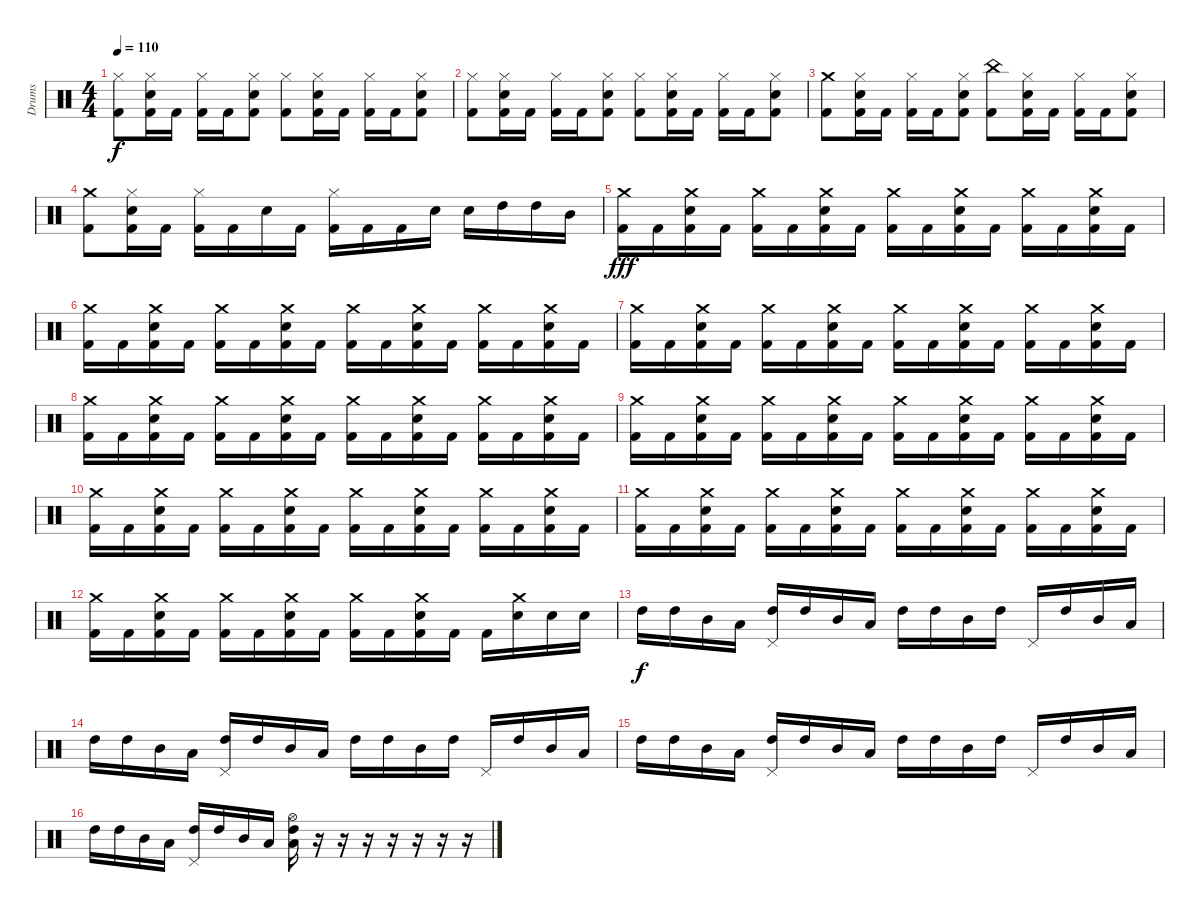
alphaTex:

\track ("Drums" "Drums") {instrument percussion}
\staff {score}
\articulation defaults
\ts (4 4)
\tempo 110
\clef neutral
\ks c
("Hi-Hat (closed)" "Kick (hit) 2").8{dy f} ("Hi-Hat (closed)" "Electric Snare (hit)" "Kick (hit) 2").16 "Kick (hit) 2".16 ("Hi-Hat (closed)" "Kick (hit) 2").16 "Kick (hit) 2".16 ("Hi-Hat (closed)" "Electric Snare (hit)" "Kick (hit) 2").8 ("Hi-Hat (closed)" "Kick (hit) 2").8 ("Hi-Hat (closed)" "Electric Snare (hit)" "Kick (hit) 2").16 "Kick (hit) 2".16 ("Hi-Hat (closed)" "Kick (hit) 2").16 "Kick (hit) 2".16 ("Hi-Hat (closed)" "Electric Snare (hit)" "Kick (hit) 2").8 |
("Hi-Hat (closed)" "Kick (hit) 2").8 ("Hi-Hat (closed)" "Electric Snare (hit)" "Kick (hit) 2").16 "Kick (hit) 2".16 ("Hi-Hat (closed)" "Kick (hit) 2").16 "Kick (hit) 2".16 ("Hi-Hat (closed)" "Electric Snare (hit)" "Kick (hit) 2").8 ("Hi-Hat (closed)" "Kick (hit) 2").8 ("Hi-Hat (closed)" "Electric Snare (hit)" "Kick (hit) 2").16 "Kick (hit) 2".16 ("Hi-Hat (closed)" "Kick (hit) 2").16 "Kick (hit) 2".16 ("Hi-Hat (closed)" "Electric Snare (hit)" "Kick (hit) 2").8 |
("Crash medium (hit)" "Kick (hit) 2").8 ("Hi-Hat (closed)" "Electric Snare (hit)" "Kick (hit) 2").16 "Kick (hit) 2".16 ("Hi-Hat (closed)" "Kick (hit) 2").16 "Kick (hit) 2".16 ("Hi-Hat (closed)" "Electric Snare (hit)" "Kick (hit) 2").8 ("China (hit)" "Kick (hit) 2").8 ("Hi-Hat (closed)" "Electric Snare (hit)" "Kick (hit) 2").16 "Kick (hit) 2".16 ("Hi-Hat (closed)" "Kick (hit) 2").16 "Kick (hit) 2".16 ("Hi-Hat (closed)" "Electric Snare (hit)" "Kick (hit) 2").8 |
("Crash medium (hit)" "Kick (hit) 2").8 ("Hi-Hat (closed)" "Electric Snare (hit)" "Kick (hit) 2").16 "Kick (hit) 2".16 ("Hi-Hat (closed)" "Kick (hit) 2").16 "Kick (hit) 2".16 "Electric Snare (hit)".16 "Kick (hit) 2".16 ("Hi-Hat (closed)" "Kick (hit) 2").16 "Kick (hit) 2".16 "Kick (hit) 2".16 "Electric Snare (hit)".16 "Electric Snare (hit)".16 "High Tom (hit)".16 "High Tom (hit)".16 "Mid Tom (hit)".16 |
("Crash medium (hit)" "Kick (hit) 2").16{dy fff} "Kick (hit) 2".16 ("Crash medium (hit)" "Electric Snare (hit)" "Kick (hit) 2").16 "Kick (hit) 2".16 ("Crash medium (hit)" "Kick (hit) 2").16 "Kick (hit) 2".16 ("Crash medium (hit)" "Electric Snare (hit)" "Kick (hit) 2").16 "Kick (hit) 2".16 ("Crash medium (hit)" "Kick (hit) 2").16 "Kick (hit) 2".16 ("Crash medium (hit)" "Electric Snare (hit)" "Kick (hit) 2").16 "Kick (hit) 2".16 ("Crash medium (hit)" "Kick (hit) 2").16 "Kick (hit) 2".16 ("Crash medium (hit)" "Electric Snare (hit)" "Kick (hit) 2").16 "Kick (hit) 2".16 |
("Crash medium (hit)" "Kick (hit) 2").16 "Kick (hit) 2".16 ("Crash medium (hit)" "Electric Snare (hit)" "Kick (hit) 2").16 "Kick (hit) 2".16 ("Crash medium (hit)" "Kick (hit) 2").16 "Kick (hit) 2".16 ("Crash medium (hit)" "Electric Snare (hit)" "Kick (hit) 2").16 "Kick (hit) 2".16 ("Crash medium (hit)" "Kick (hit) 2").16 "Kick (hit) 2".16 ("Crash medium (hit)" "Electric Snare (hit)" "Kick (hit) 2").16 "Kick (hit) 2".16 ("Crash medium (hit)" "Kick (hit) 2").16 "Kick (hit) 2".16 ("Crash medium (hit)" "Electric Snare (hit)" "Kick (hit) 2").16 "Kick (hit) 2".16 |
("Crash medium (hit)" "Kick (hit) 2").16 "Kick (hit) 2".16 ("Crash medium (hit)" "Electric Snare (hit)" "Kick (hit) 2").16 "Kick (hit) 2".16 ("Crash medium (hit)" "Kick (hit) 2").16 "Kick (hit) 2".16 ("Crash medium (hit)" "Electric Snare (hit)" "Kick (hit) 2").16 "Kick (hit) 2".16 ("Crash medium (hit)" "Kick (hit) 2").16 "Kick (hit) 2".16 ("Crash medium (hit)" "Electric Snare (hit)" "Kick (hit) 2").16 "Kick (hit) 2".16 ("Crash medium (hit)" "Kick (hit) 2").16 "Kick (hit) 2".16 ("Crash medium (hit)" "Electric Snare (hit)" "Kick (hit) 2").16 "Kick (hit) 2".16 |
("Crash medium (hit)" "Kick (hit) 2").16 "Kick (hit) 2".16 ("Crash medium (hit)" "Electric Snare (hit)" "Kick (hit) 2").16 "Kick (hit) 2".16 ("Crash medium (hit)" "Kick (hit) 2").16 "Kick (hit) 2".16 ("Crash medium (hit)" "Electric Snare (hit)" "Kick (hit) 2").16 "Kick (hit) 2".16 ("Crash medium (hit)" "Kick (hit) 2").16 "Kick (hit) 2".16 ("Crash medium (hit)" "Electric Snare (hit)" "Kick (hit) 2").16 "Kick (hit) 2".16 ("Crash medium (hit)" "Kick (hit) 2").16 "Kick (hit) 2".16 ("Crash medium (hit)" "Electric Snare (hit)" "Kick (hit) 2").16 "Kick (hit) 2".16 |
("Crash medium (hit)" "Kick (hit) 2").16 "Kick (hit) 2".16 ("Crash medium (hit)" "Electric Snare (hit)" "Kick (hit) 2").16 "Kick (hit) 2".16 ("Crash medium (hit)" "Kick (hit) 2").16 "Kick (hit) 2".16 ("Crash medium (hit)" "Electric Snare (hit)" "Kick (hit) 2").16 "Kick (hit) 2".16 ("Crash medium (hit)" "Kick (hit) 2").16 "Kick (hit) 2".16 ("Crash medium (hit)" "Electric Snare (hit)" "Kick (hit) 2").16 "Kick (hit) 2".16 ("Crash medium (hit)" "Kick (hit) 2").16 "Kick (hit) 2".16 ("Crash medium (hit)" "Electric Snare (hit)" "Kick (hit) 2").16 "Kick (hit) 2".16 |
("Crash medium (hit)" "Kick (hit) 2").16 "Kick (hit) 2".16 ("Crash medium (hit)" "Electric Snare (hit)" "Kick (hit) 2").16 "Kick (hit) 2".16 ("Crash medium (hit)" "Kick (hit) 2").16 "Kick (hit) 2".16 ("Crash medium (hit)" "Electric Snare (hit)" "Kick (hit) 2").16 "Kick (hit) 2".16 ("Crash medium (hit)" "Kick (hit) 2").16 "Kick (hit) 2".16 ("Crash medium (hit)" "Electric Snare (hit)" "Kick (hit) 2").16 "Kick (hit) 2".16 ("Crash medium (hit)" "Kick (hit) 2").16 "Kick (hit) 2".16 ("Crash medium (hit)" "Electric Snare (hit)" "Kick (hit) 2").16 "Kick (hit) 2".16 |
("Crash medium (hit)" "Kick (hit) 2").16 "Kick (hit) 2".16 ("Crash medium (hit)" "Electric Snare (hit)" "Kick (hit) 2").16 "Kick (hit) 2".16 ("Crash medium (hit)" "Kick (hit) 2").16 "Kick (hit) 2".16 ("Crash medium (hit)" "Electric Snare (hit)" "Kick (hit) 2").16 "Kick (hit) 2".16 ("Crash medium (hit)" "Kick (hit) 2").16 "Kick (hit) 2".16 ("Crash medium (hit)" "Electric Snare (hit)" "Kick (hit) 2").16 "Kick (hit) 2".16 ("Crash medium (hit)" "Kick (hit) 2").16 "Kick (hit) 2".16 ("Crash medium (hit)" "Electric Snare (hit)" "Kick (hit) 2").16 "Kick (hit) 2".16 |
("Crash medium (hit)" "Kick (hit) 2").16 "Kick (hit) 2".16 ("Crash medium (hit)" "Electric Snare (hit)" "Kick (hit) 2").16 "Kick (hit) 2".16 ("Crash medium (hit)" "Kick (hit) 2").16 "Kick (hit) 2".16 ("Crash medium (hit)" "Electric Snare (hit)" "Kick (hit) 2").16 "Kick (hit) 2".16 ("Crash medium (hit)" "Kick (hit) 2").16 "Kick (hit) 2".16 ("Crash medium (hit)" "Electric Snare (hit)" "Kick (hit) 2").16 "Kick (hit) 2".16 "Kick (hit) 2".16 ("Crash medium (hit)" "Electric Snare (hit)").16 "Electric Snare (hit)".16 "Electric Snare (hit)".16 |
"High Tom (hit)".16{dy f} "High Tom (hit)".16 "Mid Tom (hit)".16 "Low Floor Tom (hit)".16 ("Pedal Hi-Hat (hit)" "High Tom (hit)").16 "High Tom (hit)".16 "Mid Tom (hit)".16 "Low Floor Tom (hit)".16 "High Tom (hit)".16 "High Tom (hit)".16 "Mid Tom (hit)".16 "High Tom (hit)".16 "Pedal Hi-Hat (hit)".16 "High Tom (hit)".16 "Mid Tom (hit)".16 "Low Floor Tom (hit)".16 |
"High Tom (hit)".16 "High Tom (hit)".16 "Mid Tom (hit)".16 "Low Floor Tom (hit)".16 ("Pedal Hi-Hat (hit)" "High Tom (hit)").16 "High Tom (hit)".16 "Mid Tom (hit)".16 "Low Floor Tom (hit)".16 "High Tom (hit)".16 "High Tom (hit)".16 "Mid Tom (hit)".16 "High Tom (hit)".16 "Pedal Hi-Hat (hit)".16 "High Tom (hit)".16 "Mid Tom (hit)".16 "Low Floor Tom (hit)".16 |
"High Tom (hit)".16 "High Tom (hit)".16 "Mid Tom (hit)".16 "Low Floor Tom (hit)".16 ("Pedal Hi-Hat (hit)" "High Tom (hit)").16 "High Tom (hit)".16 "Mid Tom (hit)".16 "Low Floor Tom (hit)".16 "High Tom (hit)".16 "High Tom (hit)".16 "Mid Tom (hit)".16 "High Tom (hit)".16 "Pedal Hi-Hat (hit)".16 "High Tom (hit)".16 "Mid Tom (hit)".16 "Low Floor Tom (hit)".16 |
"High Tom (hit)".16 "High Tom (hit)".16 "Mid Tom (hit)".16 "Low Floor Tom (hit)".16 ("Pedal Hi-Hat (hit)" "High Tom (hit)").16 "High Tom (hit)".16 "Mid Tom (hit)".16 "Low Floor Tom (hit)".16 ("Hi-Hat (open)" "High Tom (hit)" "Low Floor Tom (hit)").16 r.16 r.16 r.16 r.16 r.16 r.16 r.16
